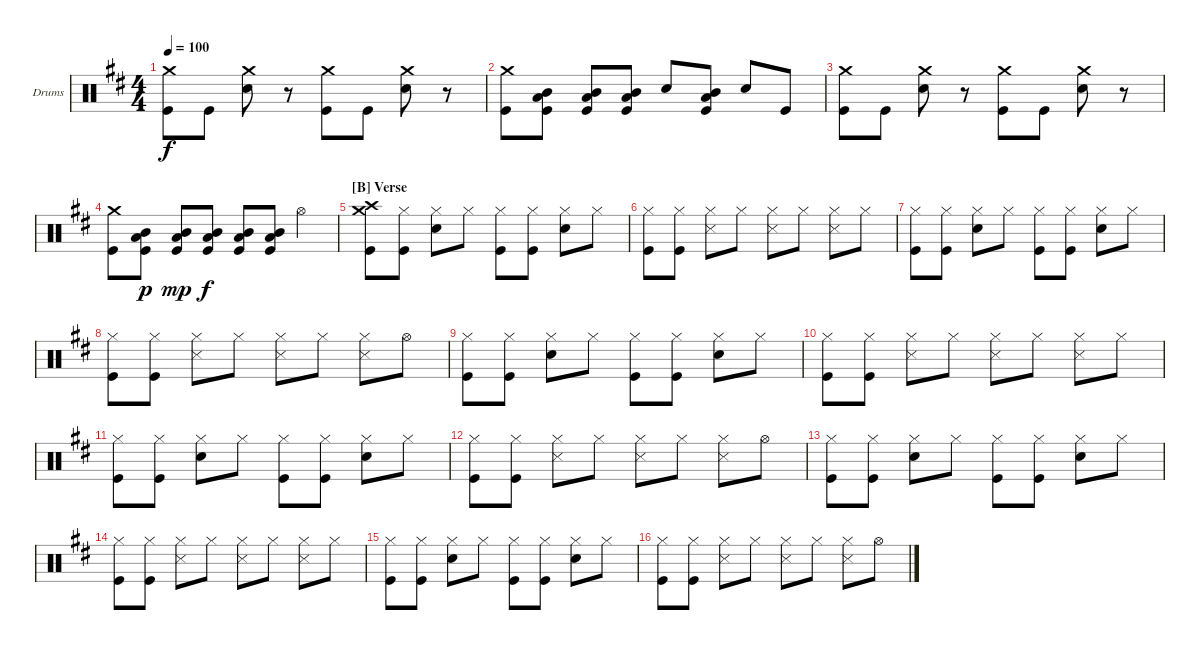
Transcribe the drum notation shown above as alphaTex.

\defaultSystemsLayout 4
\bracketExtendMode groupsimilarinstruments
\firstSystemTrackNameOrientation horizontal
\otherSystemsTrackNameOrientation horizontal
\track ("Drumkit" "Drums") {instrument percussion}
\staff {score}
\articulation defaults
\ts (4 4)
\tempo 100
\clef neutral
\scale
1.05044
\ks d
("Crash medium (hit)" "Kick (hit)").8{dy f} "Kick (hit)".8 ("Crash medium (hit)" "Snare (hit) 2").8 r.8 ("Crash medium (hit)" "Kick (hit)").8 "Kick (hit)".8 ("Crash medium (hit)" "Snare (hit) 2").8 r.8 |
\scale
0.949559 ("Crash medium (hit)" "Kick (hit)").8 ("Mid Tom (hit)" "Low Tom (hit)" "Kick (hit)").8 ("Mid Tom (hit)" "Low Tom (hit)" "Kick (hit)").8 ("Mid Tom (hit)" "Low Tom (hit)" "Kick (hit)").8 "Snare (hit) 2".8 ("Mid Tom (hit)" "Low Tom (hit)" "Kick (hit)").8 "Snare (hit) 2".8 "Kick (hit)".8 |
\scale
1.05044 ("Crash medium (hit)" "Kick (hit)").8 "Kick (hit)".8 ("Crash medium (hit)" "Snare (hit) 2").8 r.8 ("Crash medium (hit)" "Kick (hit)").8 "Kick (hit)".8 ("Crash medium (hit)" "Snare (hit) 2").8 r.8 |
\scale
0.949559 ("Crash medium (hit)" "Kick (hit)").8 ("Low Tom (hit)" "Mid Tom (hit)" "Kick (hit)").8{dy p} ("Low Tom (hit)" "Mid Tom (hit)" "Kick (hit)").8{dy mp} ("Low Tom (hit)" "Mid Tom (hit)" "Kick (hit)").8{dy f} ("Low Tom (hit)" "Mid Tom (hit)" "Kick (hit)").8 ("Low Tom (hit)" "Mid Tom (hit)" "Kick (hit)").8 "Hi-Hat (open)".4 |
\section ("B" "Verse")
\scale
1.05044 ("Crash medium (hit)" "Crash high (hit)" "Kick (hit)").8 ("Hi-Hat (closed)" "Kick (hit)").8 ("Hi-Hat (closed)" "Snare (hit) 2").8 "Hi-Hat (closed)".8 ("Hi-Hat (closed)" "Kick (hit)").8 ("Hi-Hat (closed)" "Kick (hit)").8 ("Hi-Hat (closed)" "Snare (hit) 2").8 "Hi-Hat (closed)".8 |
\scale
0.949559 ("Hi-Hat (closed)" "Kick (hit)").8 ("Hi-Hat (closed)" "Kick (hit)").8 ("Hi-Hat (closed)" "Snare (side stick) 3").8 "Hi-Hat (closed)".8 ("Hi-Hat (closed)" "Snare (side stick) 3").8 "Hi-Hat (closed)".8 ("Hi-Hat (closed)" "Snare (side stick) 3").8 "Hi-Hat (closed)".8 |
\scale
1.05044 ("Hi-Hat (closed)" "Kick (hit)").8 ("Hi-Hat (closed)" "Kick (hit)").8 ("Hi-Hat (closed)" "Snare (hit) 2").8 "Hi-Hat (closed)".8 ("Hi-Hat (closed)" "Kick (hit)").8 ("Hi-Hat (closed)" "Kick (hit)").8 ("Hi-Hat (closed)" "Snare (hit) 2").8 "Hi-Hat (closed)".8 |
\scale
0.949559 ("Hi-Hat (closed)" "Kick (hit)").8 ("Hi-Hat (closed)" "Kick (hit)").8 ("Hi-Hat (closed)" "Snare (side stick) 3").8 "Hi-Hat (closed)".8 ("Hi-Hat (closed)" "Snare (side stick) 3").8 "Hi-Hat (closed)".8 ("Hi-Hat (closed)" "Snare (side stick) 3").8 "Hi-Hat (open)".8 |
\scale
1.05044 ("Hi-Hat (closed)" "Kick (hit)").8 ("Hi-Hat (closed)" "Kick (hit)").8 ("Hi-Hat (closed)" "Snare (hit) 2").8 "Hi-Hat (closed)".8 ("Hi-Hat (closed)" "Kick (hit)").8 ("Hi-Hat (closed)" "Kick (hit)").8 ("Hi-Hat (closed)" "Snare (hit) 2").8 "Hi-Hat (closed)".8 |
\scale
0.949559 ("Hi-Hat (closed)" "Kick (hit)").8 ("Hi-Hat (closed)" "Kick (hit)").8 ("Hi-Hat (closed)" "Snare (side stick) 3").8 "Hi-Hat (closed)".8 ("Hi-Hat (closed)" "Snare (side stick) 3").8 "Hi-Hat (closed)".8 ("Hi-Hat (closed)" "Snare (side stick) 3").8 "Hi-Hat (closed)".8 |
\scale
1.05044 ("Hi-Hat (closed)" "Kick (hit)").8 ("Hi-Hat (closed)" "Kick (hit)").8 ("Hi-Hat (closed)" "Snare (hit) 2").8 "Hi-Hat (closed)".8 ("Hi-Hat (closed)" "Kick (hit)").8 ("Hi-Hat (closed)" "Kick (hit)").8 ("Hi-Hat (closed)" "Snare (hit) 2").8 "Hi-Hat (closed)".8 |
\scale
0.949559 ("Hi-Hat (closed)" "Kick (hit)").8 ("Hi-Hat (closed)" "Kick (hit)").8 ("Hi-Hat (closed)" "Snare (side stick) 3").8 "Hi-Hat (closed)".8 ("Hi-Hat (closed)" "Snare (side stick) 3").8 "Hi-Hat (closed)".8 ("Hi-Hat (closed)" "Snare (side stick) 3").8 "Hi-Hat (open)".8 |
\scale
1.05044 ("Hi-Hat (closed)" "Kick (hit)").8 ("Hi-Hat (closed)" "Kick (hit)").8 ("Hi-Hat (closed)" "Snare (hit) 2").8 "Hi-Hat (closed)".8 ("Hi-Hat (closed)" "Kick (hit)").8 ("Hi-Hat (closed)" "Kick (hit)").8 ("Hi-Hat (closed)" "Snare (hit) 2").8 "Hi-Hat (closed)".8 |
\scale
0.949559 ("Hi-Hat (closed)" "Kick (hit)").8 ("Hi-Hat (closed)" "Kick (hit)").8 ("Hi-Hat (closed)" "Snare (side stick) 3").8 "Hi-Hat (closed)".8 ("Hi-Hat (closed)" "Snare (side stick) 3").8 "Hi-Hat (closed)".8 ("Hi-Hat (closed)" "Snare (side stick) 3").8 "Hi-Hat (closed)".8 |
\scale
1.05044 ("Hi-Hat (closed)" "Kick (hit)").8 ("Hi-Hat (closed)" "Kick (hit)").8 ("Hi-Hat (closed)" "Snare (hit) 2").8 "Hi-Hat (closed)".8 ("Hi-Hat (closed)" "Kick (hit)").8 ("Hi-Hat (closed)" "Kick (hit)").8 ("Hi-Hat (closed)" "Snare (hit) 2").8 "Hi-Hat (closed)".8 |
\scale
0.949559 ("Hi-Hat (closed)" "Kick (hit)").8 ("Hi-Hat (closed)" "Kick (hit)").8 ("Hi-Hat (closed)" "Snare (side stick) 3").8 "Hi-Hat (closed)".8 ("Hi-Hat (closed)" "Snare (side stick) 3").8 "Hi-Hat (closed)".8 ("Hi-Hat (closed)" "Snare (side stick) 3").8 "Hi-Hat (open)".8
